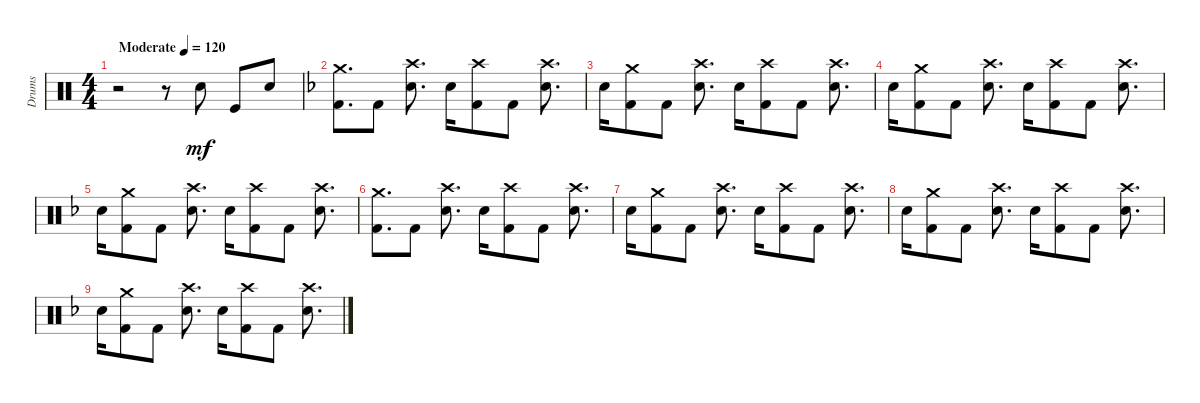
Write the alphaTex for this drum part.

\track ("Drums" "Drums") {instrument percussion}
\staff {score}
\articulation defaults
\ts (4 4)
\tempo (120 "Moderate")
\clef neutral
\ks c
r.2{dy mf} r.8 "Snare (hit) 2".8 "Kick (hit)".8 "Snare (hit) 2".8 |
\ks dminor
("Crash medium (hit)" "Kick (hit) 2").8{d} "Kick (hit) 2".8 ("Crash high (hit)" "Snare (hit) 2").8{d} "Snare (hit) 2".16 ("Crash high (hit)" "Kick (hit) 2").8 "Kick (hit) 2".8 ("Crash high (hit)" "Snare (hit) 2").8{d} |
"Snare (hit) 2".16 ("Crash medium (hit)" "Kick (hit) 2").8 "Kick (hit) 2".8 ("Crash high (hit)" "Snare (hit) 2").8{d} "Snare (hit) 2".16 ("Crash high (hit)" "Kick (hit) 2").8 "Kick (hit) 2".8 ("Crash high (hit)" "Snare (hit) 2").8{d} |
"Snare (hit) 2".16 ("Crash medium (hit)" "Kick (hit) 2").8 "Kick (hit) 2".8 ("Crash high (hit)" "Snare (hit) 2").8{d} "Snare (hit) 2".16 ("Crash high (hit)" "Kick (hit) 2").8 "Kick (hit) 2".8 ("Crash high (hit)" "Snare (hit) 2").8{d} |
"Snare (hit) 2".16 ("Crash medium (hit)" "Kick (hit) 2").8 "Kick (hit) 2".8 ("Crash high (hit)" "Snare (hit) 2").8{d} "Snare (hit) 2".16 ("Crash high (hit)" "Kick (hit) 2").8 "Kick (hit) 2".8 ("Crash high (hit)" "Snare (hit) 2").8{d} |
("Crash medium (hit)" "Kick (hit) 2").8{d} "Kick (hit) 2".8 ("Crash high (hit)" "Snare (hit) 2").8{d} "Snare (hit) 2".16 ("Crash high (hit)" "Kick (hit) 2").8 "Kick (hit) 2".8 ("Crash high (hit)" "Snare (hit) 2").8{d} |
"Snare (hit) 2".16 ("Crash medium (hit)" "Kick (hit) 2").8 "Kick (hit) 2".8 ("Crash high (hit)" "Snare (hit) 2").8{d} "Snare (hit) 2".16 ("Crash high (hit)" "Kick (hit) 2").8 "Kick (hit) 2".8 ("Crash high (hit)" "Snare (hit) 2").8{d} |
"Snare (hit) 2".16 ("Crash medium (hit)" "Kick (hit) 2").8 "Kick (hit) 2".8 ("Crash high (hit)" "Snare (hit) 2").8{d} "Snare (hit) 2".16 ("Crash high (hit)" "Kick (hit) 2").8 "Kick (hit) 2".8 ("Crash high (hit)" "Snare (hit) 2").8{d} |
"Snare (hit) 2".16 ("Crash medium (hit)" "Kick (hit) 2").8 "Kick (hit) 2".8 ("Crash high (hit)" "Snare (hit) 2").8{d} "Snare (hit) 2".16 ("Crash high (hit)" "Kick (hit) 2").8 "Kick (hit) 2".8 ("Crash high (hit)" "Snare (hit) 2").8{d}
